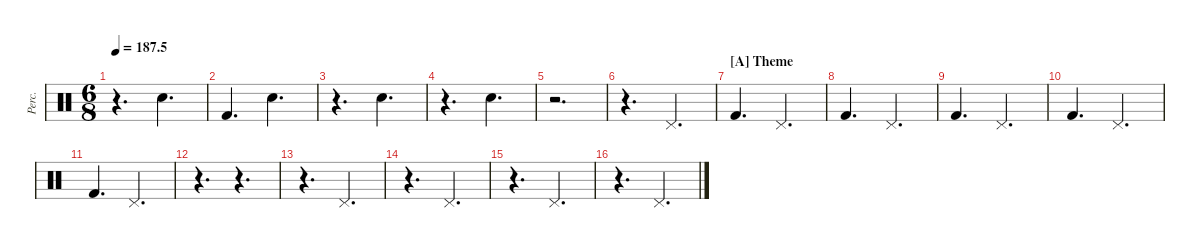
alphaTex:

\defaultSystemsLayout 4
\hideDynamics
\bracketExtendMode groupsimilarinstruments
\otherSystemsTrackNameOrientation horizontal
\track ("Percussions" "Perc.") {instrument percussion}
\staff {score}
\articulation defaults
\ts (6 8)
\tempo
187.5
\accidentals auto
\clef neutral
\ottava regular
\simile none
\ks c
r.4{d dy mf beam Down} "Snare (hit) 2".4{d beam Down} |
"Kick (hit) 2".4{d beam Up} "Snare (hit) 2".4{d beam Down} |
r.4{d beam Down} "Snare (hit) 2".4{d beam Down} |
r.4{d beam Down} "Snare (hit) 2".4{d beam Down} |
r.2{d beam Down} |
r.4{d beam Down} "Pedal Hi-Hat (hit)".4{d beam Up} |
\section ("A" "Theme")
"Kick (hit) 2".4{d beam Up} "Pedal Hi-Hat (hit)".4{d beam Up} |
"Kick (hit) 2".4{d beam Up} "Pedal Hi-Hat (hit)".4{d beam Up} |
"Kick (hit) 2".4{d beam Up} "Pedal Hi-Hat (hit)".4{d beam Up} |
"Kick (hit) 2".4{d beam Up} "Pedal Hi-Hat (hit)".4{d beam Up} |
"Kick (hit) 2".4{d beam Up} "Pedal Hi-Hat (hit)".4{d beam Up} |
r.4{d beam Down} r.4{d beam Up} |
r.4{d beam Down} "Pedal Hi-Hat (hit)".4{d beam Up} |
r.4{d beam Down} "Pedal Hi-Hat (hit)".4{d beam Up} |
r.4{d beam Down} "Pedal Hi-Hat (hit)".4{d beam Up} |
r.4{d beam Down} "Pedal Hi-Hat (hit)".4{d beam Up}
